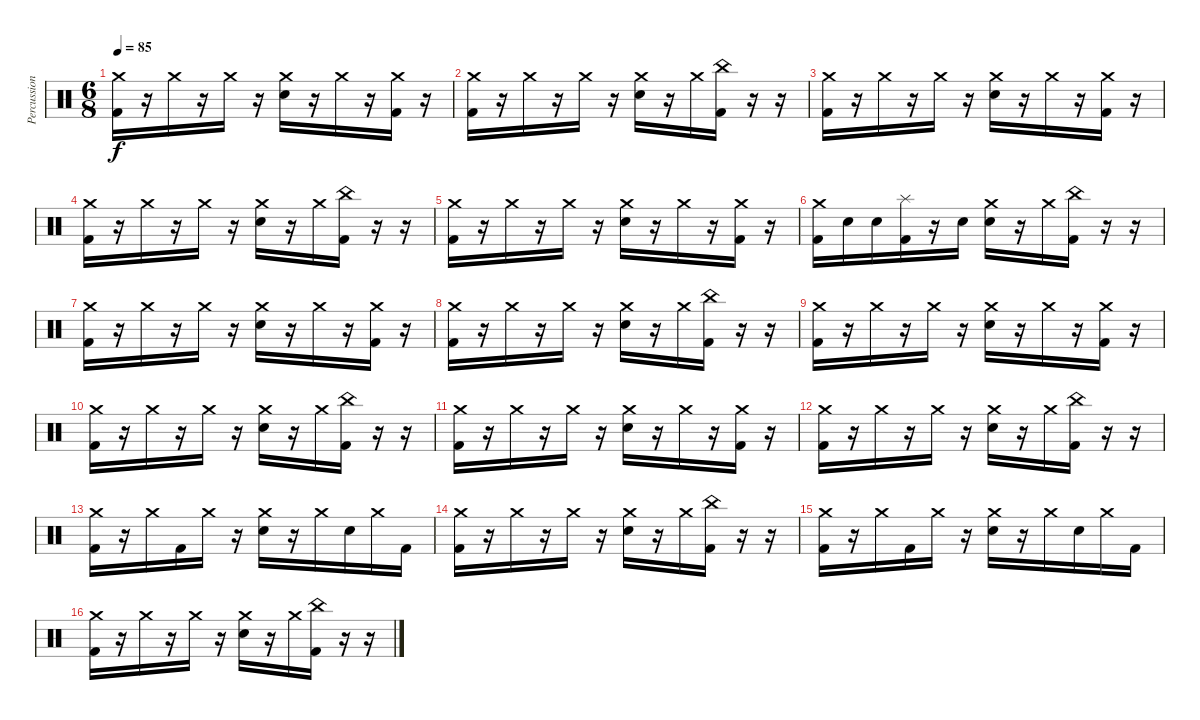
\track ("Percussion" "Percussion") {instrument percussion}
\staff {score}
\articulation defaults
\ts (6 8)
\tempo 85
\clef neutral
\ks c
("Crash medium (hit)" "Kick (hit) 2").16{dy f} r.16 "Crash medium (hit)".16 r.16 "Crash medium (hit)".16 r.16 ("Crash medium (hit)" "Electric Snare (hit)").16 r.16 "Crash medium (hit)".16 r.16 ("Crash medium (hit)" "Kick (hit) 2").16 r.16 |
("Crash medium (hit)" "Kick (hit) 2").16 r.16 "Crash medium (hit)".16 r.16 "Crash medium (hit)".16 r.16 ("Crash medium (hit)" "Electric Snare (hit)").16 r.16 "Crash medium (hit)".16 ("China (hit)" "Kick (hit) 2").16 r.16 r.16 |
("Crash medium (hit)" "Kick (hit) 2").16 r.16 "Crash medium (hit)".16 r.16 "Crash medium (hit)".16 r.16 ("Crash medium (hit)" "Electric Snare (hit)").16 r.16 "Crash medium (hit)".16 r.16 ("Crash medium (hit)" "Kick (hit) 2").16 r.16 |
("Crash medium (hit)" "Kick (hit) 2").16 r.16 "Crash medium (hit)".16 r.16 "Crash medium (hit)".16 r.16 ("Crash medium (hit)" "Electric Snare (hit)").16 r.16 "Crash medium (hit)".16 ("China (hit)" "Kick (hit) 2").16 r.16 r.16 |
("Crash medium (hit)" "Kick (hit) 2").16 r.16 "Crash medium (hit)".16 r.16 "Crash medium (hit)".16 r.16 ("Crash medium (hit)" "Electric Snare (hit)").16 r.16 "Crash medium (hit)".16 r.16 ("Crash medium (hit)" "Kick (hit) 2").16 r.16 |
("Crash medium (hit)" "Kick (hit) 2").16 "Electric Snare (hit)".16 "Electric Snare (hit)".16 ("Splash (hit)" "Kick (hit) 2").16 r.16 "Electric Snare (hit)".16 ("Crash medium (hit)" "Electric Snare (hit)").16 r.16 "Crash medium (hit)".16 ("China (hit)" "Kick (hit) 2").16 r.16 r.16 |
("Crash medium (hit)" "Kick (hit) 2").16 r.16 "Crash medium (hit)".16 r.16 "Crash medium (hit)".16 r.16 ("Crash medium (hit)" "Electric Snare (hit)").16 r.16 "Crash medium (hit)".16 r.16 ("Crash medium (hit)" "Kick (hit) 2").16 r.16 |
("Crash medium (hit)" "Kick (hit) 2").16 r.16 "Crash medium (hit)".16 r.16 "Crash medium (hit)".16 r.16 ("Crash medium (hit)" "Electric Snare (hit)").16 r.16 "Crash medium (hit)".16 ("China (hit)" "Kick (hit) 2").16 r.16 r.16 |
("Crash medium (hit)" "Kick (hit) 2").16 r.16 "Crash medium (hit)".16 r.16 "Crash medium (hit)".16 r.16 ("Crash medium (hit)" "Electric Snare (hit)").16 r.16 "Crash medium (hit)".16 r.16 ("Crash medium (hit)" "Kick (hit) 2").16 r.16 |
("Crash medium (hit)" "Kick (hit) 2").16 r.16 "Crash medium (hit)".16 r.16 "Crash medium (hit)".16 r.16 ("Crash medium (hit)" "Electric Snare (hit)").16 r.16 "Crash medium (hit)".16 ("China (hit)" "Kick (hit) 2").16 r.16 r.16 |
("Crash medium (hit)" "Kick (hit) 2").16 r.16 "Crash medium (hit)".16 r.16 "Crash medium (hit)".16 r.16 ("Crash medium (hit)" "Electric Snare (hit)").16 r.16 "Crash medium (hit)".16 r.16 ("Crash medium (hit)" "Kick (hit) 2").16 r.16 |
("Crash medium (hit)" "Kick (hit) 2").16 r.16 "Crash medium (hit)".16 r.16 "Crash medium (hit)".16 r.16 ("Crash medium (hit)" "Electric Snare (hit)").16 r.16 "Crash medium (hit)".16 ("China (hit)" "Kick (hit) 2").16 r.16 r.16 |
("Crash medium (hit)" "Kick (hit) 2").16 r.16 "Crash medium (hit)".16 "Kick (hit) 2".16 "Crash medium (hit)".16 r.16 ("Crash medium (hit)" "Electric Snare (hit)").16 r.16 "Crash medium (hit)".16 "Electric Snare (hit)".16 "Crash medium (hit)".16 "Kick (hit) 2".16 |
("Crash medium (hit)" "Kick (hit) 2").16 r.16 "Crash medium (hit)".16 r.16 "Crash medium (hit)".16 r.16 ("Crash medium (hit)" "Electric Snare (hit)").16 r.16 "Crash medium (hit)".16 ("China (hit)" "Kick (hit) 2").16 r.16 r.16 |
("Crash medium (hit)" "Kick (hit) 2").16 r.16 "Crash medium (hit)".16 "Kick (hit) 2".16 "Crash medium (hit)".16 r.16 ("Crash medium (hit)" "Electric Snare (hit)").16 r.16 "Crash medium (hit)".16 "Electric Snare (hit)".16 "Crash medium (hit)".16 "Kick (hit) 2".16 |
("Crash medium (hit)" "Kick (hit) 2").16 r.16 "Crash medium (hit)".16 r.16 "Crash medium (hit)".16 r.16 ("Crash medium (hit)" "Electric Snare (hit)").16 r.16 "Crash medium (hit)".16 ("China (hit)" "Kick (hit) 2").16 r.16 r.16
